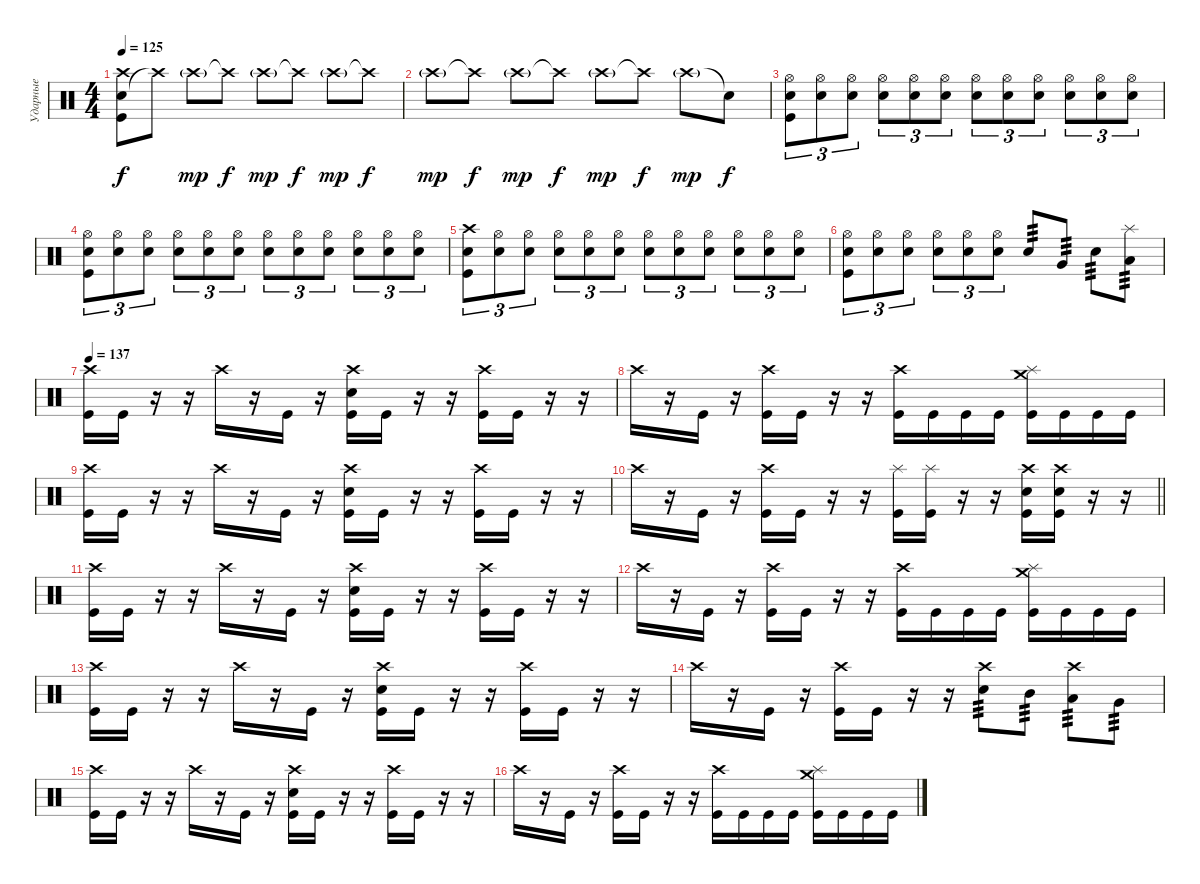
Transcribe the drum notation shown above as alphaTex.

\track ("Ударные" "Ударные") {instrument percussion}
\staff {score}
\articulation defaults
\ts (4 4)
\tempo 125
\clef neutral
\ks c
("Snare (hit) 2" "Kick (hit)" "Crash high (hit)").8{dy f} "Crash high (hit)"{t}.8 "Crash high (hit)"{g}.8{dy mp} "Crash high (hit)"{t}.8{dy f} "Crash high (hit)"{g}.8{dy mp} "Crash high (hit)"{t}.8{dy f} "Crash high (hit)"{g}.8{dy mp} "Crash high (hit)"{t}.8{dy f} |
"Crash high (hit)"{g}.8{dy mp} "Crash high (hit)"{t}.8{dy f} "Crash high (hit)"{g}.8{dy mp} "Crash high (hit)"{t}.8{dy f} "Crash high (hit)"{g}.8{dy mp} "Crash high (hit)"{t}.8{dy f} "Crash high (hit)"{g}.8{dy mp} "Snare (hit)"{t}.8{dy f} |
("Kick (hit)" "Hi-Hat (open)" "Snare (hit) 2").8{tu (3 2)} ("Hi-Hat (open)" "Snare (hit) 2").8{tu (3 2)} ("Hi-Hat (open)" "Snare (hit) 2").8{tu (3 2)} ("Hi-Hat (open)" "Snare (hit) 2").8{tu (3 2)} ("Hi-Hat (open)" "Snare (hit) 2").8{tu (3 2)} ("Hi-Hat (open)" "Snare (hit) 2").8{tu (3 2)} ("Hi-Hat (open)" "Snare (hit) 2").8{tu (3 2)} ("Hi-Hat (open)" "Snare (hit) 2").8{tu (3 2)} ("Hi-Hat (open)" "Snare (hit) 2").8{tu (3 2)} ("Hi-Hat (open)" "Snare (hit) 2").8{tu (3 2)} ("Hi-Hat (open)" "Snare (hit) 2").8{tu (3 2)} ("Hi-Hat (open)" "Snare (hit) 2").8{tu (3 2)} |
("Kick (hit)" "Hi-Hat (open)" "Snare (hit) 2").8{tu (3 2)} ("Hi-Hat (open)" "Snare (hit) 2").8{tu (3 2)} ("Hi-Hat (open)" "Snare (hit) 2").8{tu (3 2)} ("Hi-Hat (open)" "Snare (hit) 2").8{tu (3 2)} ("Hi-Hat (open)" "Snare (hit) 2").8{tu (3 2)} ("Hi-Hat (open)" "Snare (hit) 2").8{tu (3 2)} ("Hi-Hat (open)" "Snare (hit) 2").8{tu (3 2)} ("Hi-Hat (open)" "Snare (hit) 2").8{tu (3 2)} ("Hi-Hat (open)" "Snare (hit) 2").8{tu (3 2)} ("Hi-Hat (open)" "Snare (hit) 2").8{tu (3 2)} ("Hi-Hat (open)" "Snare (hit) 2").8{tu (3 2)} ("Hi-Hat (open)" "Snare (hit) 2").8{tu (3 2)} |
("Kick (hit)" "Crash high (hit)" "Snare (hit) 2").8{tu (3 2)} ("Hi-Hat (open)" "Snare (hit) 2").8{tu (3 2)} ("Hi-Hat (open)" "Snare (hit) 2").8{tu (3 2)} ("Hi-Hat (open)" "Snare (hit) 2").8{tu (3 2)} ("Hi-Hat (open)" "Snare (hit) 2").8{tu (3 2)} ("Hi-Hat (open)" "Snare (hit) 2").8{tu (3 2)} ("Hi-Hat (open)" "Snare (hit) 2").8{tu (3 2)} ("Hi-Hat (open)" "Snare (hit) 2").8{tu (3 2)} ("Hi-Hat (open)" "Snare (hit) 2").8{tu (3 2)} ("Hi-Hat (open)" "Snare (hit) 2").8{tu (3 2)} ("Hi-Hat (open)" "Snare (hit) 2").8{tu (3 2)} ("Hi-Hat (open)" "Snare (hit) 2").8{tu (3 2)} |
("Kick (hit)" "Hi-Hat (open)" "Snare (hit) 2").8{tu (3 2)} ("Hi-Hat (open)" "Snare (hit) 2").8{tu (3 2)} ("Hi-Hat (open)" "Snare (hit) 2").8{tu (3 2)} ("Hi-Hat (open)" "Snare (hit) 2").8{tu (3 2)} ("Hi-Hat (open)" "Snare (hit) 2").8{tu (3 2)} ("Hi-Hat (open)" "Snare (hit) 2").8{tu (3 2)} "Snare (hit) 2".8{tp 3} "Very Low Tom (hit)".8{tp 3} "Snare (hit) 2".8{tp 3} ("Low Tom (hit)" "Splash (hit)").8{tp 3} |
\tempo 137
("Kick (hit)" "Crash high (hit)").16 "Kick (hit)".16 r.16 r.16 "Crash high (hit)".16 r.16 "Kick (hit)".16 r.16 ("Kick (hit)" "Snare (hit) 2" "Crash high (hit)").16 "Kick (hit)".16 r.16 r.16 ("Kick (hit)" "Crash high (hit)").16 "Kick (hit)".16 r.16 r.16 |
"Crash high (hit)".16 r.16 "Kick (hit)".16 r.16 ("Kick (hit)" "Crash high (hit)").16 "Kick (hit)".16 r.16 r.16 ("Kick (hit)" "Crash high (hit)").16 "Kick (hit)".16 "Kick (hit)".16 "Kick (hit)".16 ("Kick (hit)" "Splash (hit)" "Crash medium (hit)").16 "Kick (hit)".16 "Kick (hit)".16 "Kick (hit)".16 |
("Kick (hit)" "Crash high (hit)").16 "Kick (hit)".16 r.16 r.16 "Crash high (hit)".16 r.16 "Kick (hit)".16 r.16 ("Kick (hit)" "Snare (hit) 2" "Crash high (hit)").16 "Kick (hit)".16 r.16 r.16 ("Kick (hit)" "Crash high (hit)").16 "Kick (hit)".16 r.16 r.16 |
\barLineRight lightlight "Crash high (hit)".16
r.16 "Kick (hit)".16 r.16 ("Kick (hit)" "Crash high (hit)").16 "Kick (hit)".16 r.16 r.16 ("Kick (hit)" "Splash (hit)").16 ("Kick (hit)" "Splash (hit)").16 r.16 r.16 ("Kick (hit)" "Crash high (hit)" "Snare (hit) 2").16 ("Kick (hit)" "Crash high (hit)" "Snare (hit) 2").16 r.16 r.16 |
("Kick (hit)" "Crash high (hit)").16 "Kick (hit)".16 r.16 r.16 "Crash high (hit)".16 r.16 "Kick (hit)".16 r.16 ("Kick (hit)" "Snare (hit) 2" "Crash high (hit)").16 "Kick (hit)".16 r.16 r.16 ("Kick (hit)" "Crash high (hit)").16 "Kick (hit)".16 r.16 r.16 |
"Crash high (hit)".16 r.16 "Kick (hit)".16 r.16 ("Kick (hit)" "Crash high (hit)").16 "Kick (hit)".16 r.16 r.16 ("Kick (hit)" "Crash high (hit)").16 "Kick (hit)".16 "Kick (hit)".16 "Kick (hit)".16 ("Kick (hit)" "Splash (hit)" "Crash medium (hit)").16 "Kick (hit)".16 "Kick (hit)".16 "Kick (hit)".16 |
("Kick (hit)" "Crash high (hit)").16 "Kick (hit)".16 r.16 r.16 "Crash high (hit)".16 r.16 "Kick (hit)".16 r.16 ("Kick (hit)" "Snare (hit) 2" "Crash high (hit)").16 "Kick (hit)".16 r.16 r.16 ("Kick (hit)" "Crash high (hit)").16 "Kick (hit)".16 r.16 r.16 |
"Crash high (hit)".16 r.16 "Kick (hit)".16 r.16 ("Kick (hit)" "Crash high (hit)").16 "Kick (hit)".16 r.16 r.16 ("Snare (hit) 2" "Crash high (hit)").8{tp 3} "Mid Tom (hit)".8{tp 3} ("Low Tom (hit)" "Crash high (hit)").8{tp 3} "Very Low Tom (hit)".8{tp 3} |
("Kick (hit)" "Crash high (hit)").16 "Kick (hit)".16 r.16 r.16 "Crash high (hit)".16 r.16 "Kick (hit)".16 r.16 ("Kick (hit)" "Snare (hit) 2" "Crash high (hit)").16 "Kick (hit)".16 r.16 r.16 ("Kick (hit)" "Crash high (hit)").16 "Kick (hit)".16 r.16 r.16 |
"Crash high (hit)".16 r.16 "Kick (hit)".16 r.16 ("Kick (hit)" "Crash high (hit)").16 "Kick (hit)".16 r.16 r.16 ("Kick (hit)" "Crash high (hit)").16 "Kick (hit)".16 "Kick (hit)".16 "Kick (hit)".16 ("Kick (hit)" "Splash (hit)" "Crash medium (hit)").16 "Kick (hit)".16 "Kick (hit)".16 "Kick (hit)".16
